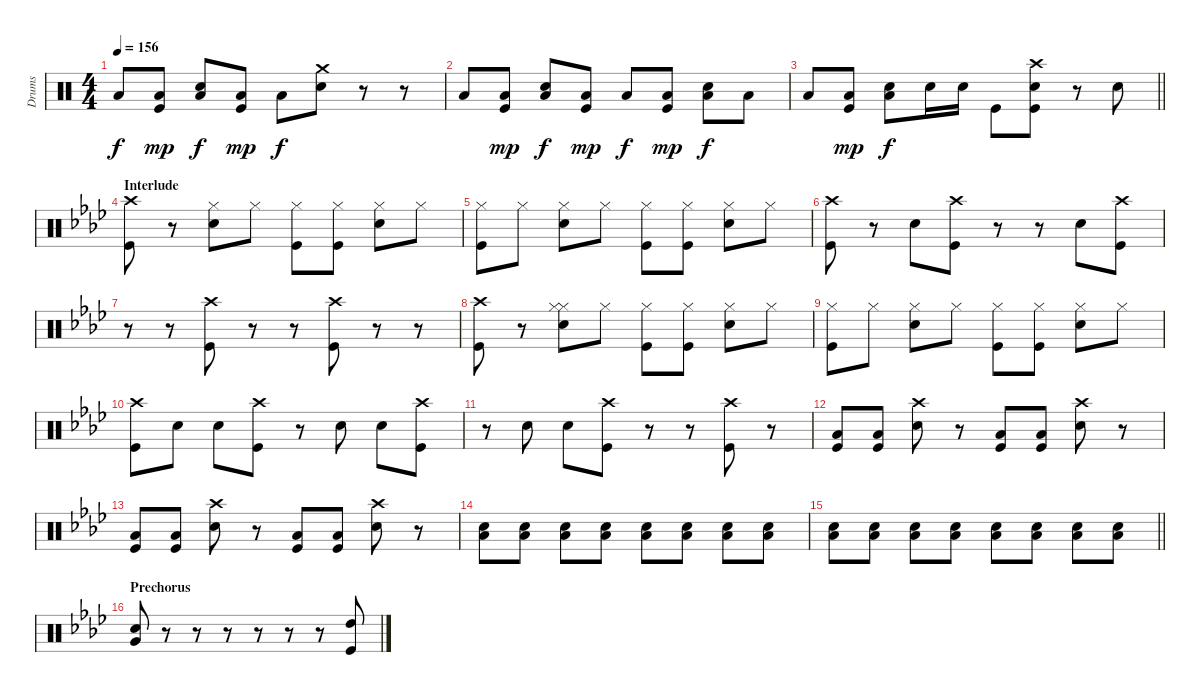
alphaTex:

\track ("Drums" "Drums") {instrument percussion}
\staff {score}
\articulation defaults
\ts (4 4)
\tempo 156
\clef neutral
\ks c "Low Tom (hit)".8{dy f}
("Low Tom (hit)" "Kick (hit)").8{dy mp} ("Snare (hit) 2" "Low Tom (hit)").8{dy f} ("Low Tom (hit)" "Kick (hit)").8{dy mp} "Low Tom (hit)".8{dy f} ("Crash medium (hit)" "Snare (hit) 2").8 r.8 r.8 |
"Low Tom (hit)".8 ("Low Tom (hit)" "Kick (hit)").8{dy mp} ("Snare (hit) 2" "Low Tom (hit)").8{dy f} ("Low Tom (hit)" "Kick (hit)").8{dy mp} "Low Tom (hit)".8{dy f} ("Low Tom (hit)" "Kick (hit)").8{dy mp} ("Snare (hit) 2" "Low Tom (hit)").8{dy f} "Low Tom (hit)".8 |
\barLineRight lightlight "Low Tom (hit)".8
("Low Tom (hit)" "Kick (hit)").8{dy mp} ("Snare (hit) 2" "Low Tom (hit)").8{dy f} "Snare (hit) 2".16 "Snare (hit) 2".16 "Kick (hit)".8 ("Crash high (hit)" "Snare (hit) 2" "Kick (hit)").8 r.8 "Snare (hit) 2".8 |
\section ("" "Interlude")
\ks ab
("Crash high (hit)" "Kick (hit)").8 r.8 ("Hi-Hat (closed)" "Snare (hit) 2").8 "Hi-Hat (closed)".8 ("Hi-Hat (closed)" "Kick (hit)").8 ("Hi-Hat (closed)" "Kick (hit)").8 ("Hi-Hat (closed)" "Snare (hit) 2").8 "Hi-Hat (closed)".8 |
("Hi-Hat (closed)" "Kick (hit)").8 "Hi-Hat (closed)".8 ("Hi-Hat (closed)" "Snare (hit) 2").8 "Hi-Hat (closed)".8 ("Hi-Hat (closed)" "Kick (hit)").8 ("Hi-Hat (closed)" "Kick (hit)").8 ("Hi-Hat (closed)" "Snare (hit) 2").8 "Hi-Hat (closed)".8 |
("Crash high (hit)" "Kick (hit)").8 r.8 "Snare (hit) 2".8 ("Crash high (hit)" "Kick (hit)").8 r.8 r.8 "Snare (hit) 2".8 ("Crash high (hit)" "Kick (hit)").8 |
r.8 r.8 ("Crash high (hit)" "Kick (hit)").8 r.8 r.8 ("Crash high (hit)" "Kick (hit)").8 r.8 r.8 |
("Crash high (hit)" "Kick (hit)").8 r.8 ("Hi-Hat (closed)" "Snare (hit) 2" "Hi-Hat (closed)").8 "Hi-Hat (closed)".8 ("Hi-Hat (closed)" "Kick (hit)").8 ("Hi-Hat (closed)" "Kick (hit)").8 ("Hi-Hat (closed)" "Snare (hit) 2").8 "Hi-Hat (closed)".8 |
("Hi-Hat (closed)" "Kick (hit)").8 "Hi-Hat (closed)".8 ("Hi-Hat (closed)" "Snare (hit) 2").8 "Hi-Hat (closed)".8 ("Hi-Hat (closed)" "Kick (hit)").8 ("Hi-Hat (closed)" "Kick (hit)").8 ("Hi-Hat (closed)" "Snare (hit) 2").8 "Hi-Hat (closed)".8 |
("Crash high (hit)" "Kick (hit)").8 "Snare (hit) 2".8 "Snare (hit) 2".8 ("Crash high (hit)" "Kick (hit)").8 r.8 "Snare (hit) 2".8 "Snare (hit) 2".8 ("Crash high (hit)" "Kick (hit)").8 |
r.8 "Snare (hit) 2".8 "Snare (hit) 2".8 ("Crash high (hit)" "Kick (hit)").8 r.8 r.8 ("Crash high (hit)" "Kick (hit)").8 r.8 |
("Low Tom (hit)" "Kick (hit)").8 ("Low Tom (hit)" "Kick (hit)").8 ("Crash high (hit)" "Snare (hit) 2").8 r.8 ("Low Tom (hit)" "Kick (hit)").8 ("Low Tom (hit)" "Kick (hit)").8 ("Crash high (hit)" "Snare (hit) 2").8 r.8 |
("Low Tom (hit)" "Kick (hit)").8 ("Low Tom (hit)" "Kick (hit)").8 ("Crash high (hit)" "Snare (hit) 2").8 r.8 ("Low Tom (hit)" "Kick (hit)").8 ("Low Tom (hit)" "Kick (hit)").8 ("Crash high (hit)" "Snare (hit) 2").8 r.8 |
("Snare (hit) 2" "Low Tom (hit)").8 ("Snare (hit) 2" "Low Tom (hit)").8 ("Snare (hit) 2" "Low Tom (hit)").8 ("Snare (hit) 2" "Low Tom (hit)").8 ("Snare (hit) 2" "Low Tom (hit)").8 ("Snare (hit) 2" "Low Tom (hit)").8 ("Snare (hit) 2" "Low Tom (hit)").8 ("Snare (hit) 2" "Low Tom (hit)").8 |
\barLineRight lightlight
("Snare (hit) 2" "Low Tom (hit)").8 ("Snare (hit) 2" "Low Tom (hit)").8 ("Snare (hit) 2" "Low Tom (hit)").8 ("Snare (hit) 2" "Low Tom (hit)").8 ("Snare (hit) 2" "Low Tom (hit)").8 ("Snare (hit) 2" "Low Tom (hit)").8 ("Snare (hit) 2" "Low Tom (hit)").8 ("Snare (hit) 2" "Low Tom (hit)").8 |
\section ("" "Prechorus")
("Snare (hit) 2" "Very Low Tom (hit)").8 r.8 r.8 r.8 r.8 r.8 r.8 ("High Tom (hit)" "Kick (hit)").8
